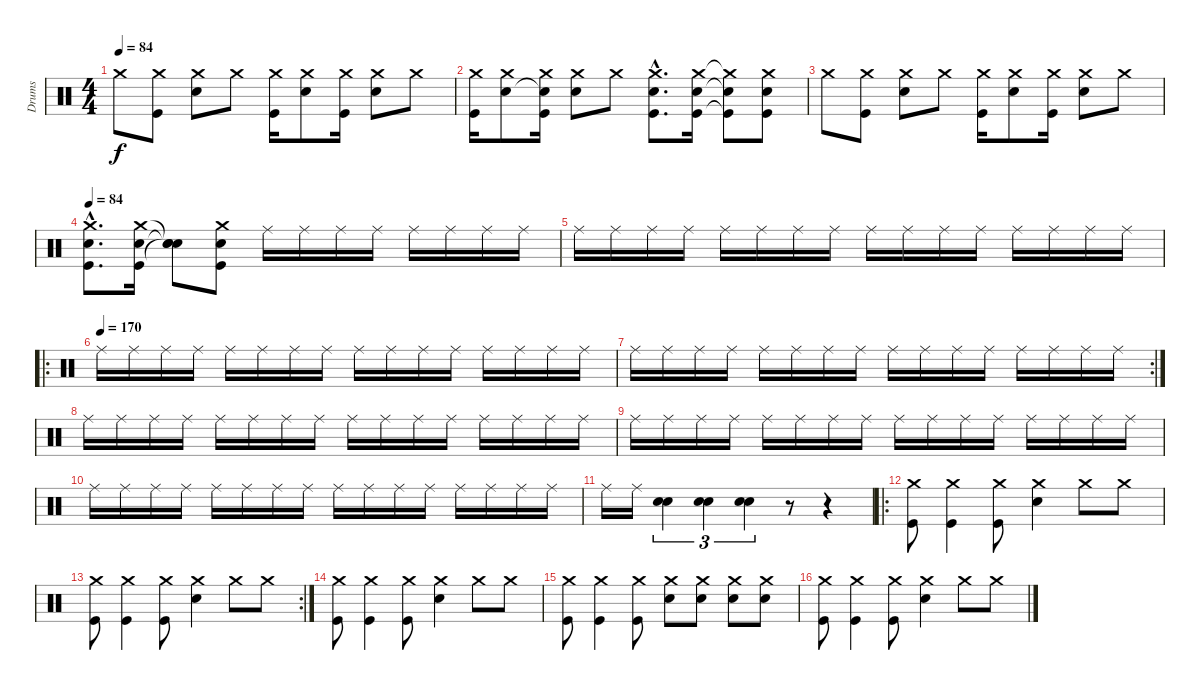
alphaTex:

\track ("Drums" "Drums") {instrument percussion}
\staff {score}
\articulation defaults
\ts (4 4)
\tempo 84
\clef neutral
\ks c "Crash medium (hit)".8{dy f}
("Crash medium (hit)" "Kick (hit)").8 ("Crash medium (hit)" "Electric Snare (hit)").8 "Crash medium (hit)".8 ("Crash medium (hit)" "Kick (hit)").16 ("Crash medium (hit)" "Electric Snare (hit)").8 ("Crash medium (hit)" "Kick (hit)").16 ("Crash medium (hit)" "Electric Snare (hit)").8 "Crash medium (hit)".8 |
("Crash medium (hit)" "Kick (hit)").16 ("Crash medium (hit)" "Electric Snare (hit)").8 ("Crash medium (hit)" "Snare (hit)"{t} "Kick (hit)").16 ("Crash medium (hit)" "Electric Snare (hit)").8 "Crash medium (hit)".8 ("Crash medium (hit)"{hac} "Electric Snare (hit)"{hac} "Kick (hit)"{hac}).8{d} ("Crash medium (hit)" "Electric Snare (hit)" "Kick (hit)").16 ("Crash medium (hit)"{t} "Snare (hit)"{t} "Kick (hit)"{t}).8 ("Crash medium (hit)" "Electric Snare (hit)" "Kick (hit)").8 |
"Crash medium (hit)".8 ("Crash medium (hit)" "Kick (hit)").8 ("Crash medium (hit)" "Electric Snare (hit)").8 "Crash medium (hit)".8 ("Crash medium (hit)" "Kick (hit)").16 ("Crash medium (hit)" "Electric Snare (hit)").8 ("Crash medium (hit)" "Kick (hit)").16 ("Crash medium (hit)" "Electric Snare (hit)").8 "Crash medium (hit)".8 |
\tempo 84
("Crash medium (hit)"{hac} "Electric Snare (hit)"{hac} "Kick (hit)"{hac}).8{d} ("Crash medium (hit)" "Electric Snare (hit)" "Kick (hit)").16 ("Snare (hit)"{t} "Snare (hit)"{t} "Snare (hit)"{t}).8 ("Crash medium (hit)" "Electric Snare (hit)" "Kick (hit)").8 "Ride (middle)".16 "Ride (middle)".16 "Ride (middle)".16 "Ride (middle)".16 "Ride (middle)".16 "Ride (middle)".16 "Ride (middle)".16 "Ride (middle)".16 |
"Ride (middle)".16 "Ride (middle)".16 "Ride (middle)".16 "Ride (middle)".16 "Ride (middle)".16 "Ride (middle)".16 "Ride (middle)".16 "Ride (middle)".16 "Ride (middle)".16 "Ride (middle)".16 "Ride (middle)".16 "Ride (middle)".16 "Ride (middle)".16 "Ride (middle)".16 "Ride (middle)".16 "Ride (middle)".16 |
\ro
\tempo (170)
"Ride (middle)".16 "Ride (middle)".16 "Ride (middle)".16 "Ride (middle)".16 "Ride (middle)".16 "Ride (middle)".16 "Ride (middle)".16 "Ride (middle)".16 "Ride (middle)".16 "Ride (middle)".16 "Ride (middle)".16 "Ride (middle)".16 "Ride (middle)".16 "Ride (middle)".16 "Ride (middle)".16 "Ride (middle)".16 |
\rc 2 "Ride (middle)".16 "Ride (middle)".16 "Ride (middle)".16 "Ride (middle)".16 "Ride (middle)".16 "Ride (middle)".16 "Ride (middle)".16 "Ride (middle)".16 "Ride (middle)".16 "Ride (middle)".16 "Ride (middle)".16 "Ride (middle)".16 "Ride (middle)".16 "Ride (middle)".16 "Ride (middle)".16 "Ride (middle)".16
|
"Ride (middle)".16 "Ride (middle)".16 "Ride (middle)".16 "Ride (middle)".16 "Ride (middle)".16 "Ride (middle)".16 "Ride (middle)".16 "Ride (middle)".16 "Ride (middle)".16 "Ride (middle)".16 "Ride (middle)".16 "Ride (middle)".16 "Ride (middle)".16 "Ride (middle)".16 "Ride (middle)".16 "Ride (middle)".16 |
"Ride (middle)".16 "Ride (middle)".16 "Ride (middle)".16 "Ride (middle)".16 "Ride (middle)".16 "Ride (middle)".16 "Ride (middle)".16 "Ride (middle)".16 "Ride (middle)".16 "Ride (middle)".16 "Ride (middle)".16 "Ride (middle)".16 "Ride (middle)".16 "Ride (middle)".16 "Ride (middle)".16 "Ride (middle)".16 |
"Ride (middle)".16 "Ride (middle)".16 "Ride (middle)".16 "Ride (middle)".16 "Ride (middle)".16 "Ride (middle)".16 "Ride (middle)".16 "Ride (middle)".16 "Ride (middle)".16 "Ride (middle)".16 "Ride (middle)".16 "Ride (middle)".16 "Ride (middle)".16 "Ride (middle)".16 "Ride (middle)".16 "Ride (middle)".16 |
"Ride (middle)".16 "Ride (middle)".16 ("Electric Snare (hit)" "Electric Snare (hit)").4{tu (3 2)} ("Electric Snare (hit)" "Electric Snare (hit)").4{tu (3 2)} ("Electric Snare (hit)" "Electric Snare (hit)").4{tu (3 2)} r.8 r.4 |
\ro
("Crash medium (hit)" "Kick (hit)").8 ("Crash medium (hit)" "Kick (hit)").4 ("Crash medium (hit)" "Kick (hit)").8 ("Crash medium (hit)" "Electric Snare (hit)").4 "Crash medium (hit)".8 "Crash medium (hit)".8 |
\rc 2
("Crash medium (hit)" "Kick (hit)").8 ("Crash medium (hit)" "Kick (hit)").4 ("Crash medium (hit)" "Kick (hit)").8 ("Crash medium (hit)" "Electric Snare (hit)").4 "Crash medium (hit)".8 "Crash medium (hit)".8 |
("Crash medium (hit)" "Kick (hit)").8 ("Crash medium (hit)" "Kick (hit)").4 ("Crash medium (hit)" "Kick (hit)").8 ("Crash medium (hit)" "Electric Snare (hit)").4 "Crash medium (hit)".8 "Crash medium (hit)".8 |
("Crash medium (hit)" "Kick (hit)").8 ("Crash medium (hit)" "Kick (hit)").4 ("Crash medium (hit)" "Kick (hit)").8 ("Crash medium (hit)" "Electric Snare (hit)").8 ("Crash medium (hit)" "Electric Snare (hit)").8 ("Crash medium (hit)" "Electric Snare (hit)").8 ("Crash medium (hit)" "Electric Snare (hit)").8 |
("Crash medium (hit)" "Kick (hit)").8 ("Crash medium (hit)" "Kick (hit)").4 ("Crash medium (hit)" "Kick (hit)").8 ("Crash medium (hit)" "Electric Snare (hit)").4 "Crash medium (hit)".8 "Crash medium (hit)".8
